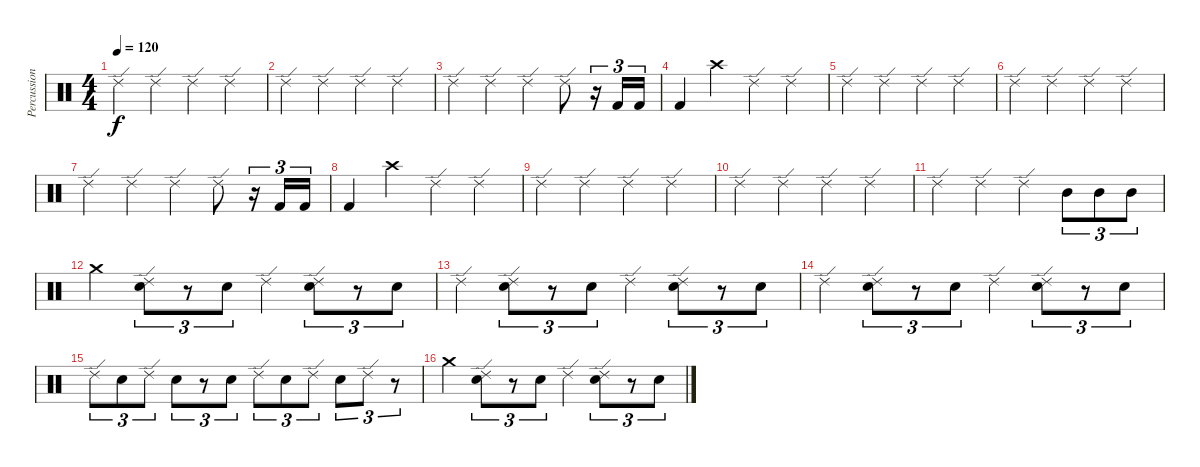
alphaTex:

\track ("Percussion" "Percussion") {instrument percussion}
\staff {score}
\articulation defaults
\ts (4 4)
\tempo 120
\clef neutral
\ks c "Ride (edge) 2".4{dy f} "Ride (edge) 2".4 "Ride (edge) 2".4 "Ride (edge) 2".4
|
"Ride (edge) 2".4 "Ride (edge) 2".4 "Ride (edge) 2".4 "Ride (edge) 2".4 |
"Ride (edge) 2".4 "Ride (edge) 2".4 "Ride (edge) 2".4 "Ride (edge) 2".8 r.16{tu (3 2)} "Kick (hit) 2".16{tu (3 2)} "Kick (hit) 2".16{tu (3 2)} |
"Kick (hit) 2".4 "Crash high (hit)".4 "Ride (edge) 2".4 "Ride (edge) 2".4 |
"Ride (edge) 2".4 "Ride (edge) 2".4 "Ride (edge) 2".4 "Ride (edge) 2".4 |
"Ride (edge) 2".4 "Ride (edge) 2".4 "Ride (edge) 2".4 "Ride (edge) 2".4 |
"Ride (edge) 2".4 "Ride (edge) 2".4 "Ride (edge) 2".4 "Ride (edge) 2".8 r.16{tu (3 2)} "Kick (hit) 2".16{tu (3 2)} "Kick (hit) 2".16{tu (3 2)} |
"Kick (hit) 2".4 "Crash high (hit)".4 "Ride (edge) 2".4 "Ride (edge) 2".4 |
"Ride (edge) 2".4 "Ride (edge) 2".4 "Ride (edge) 2".4 "Ride (edge) 2".4 |
"Ride (edge) 2".4 "Ride (edge) 2".4 "Ride (edge) 2".4 "Ride (edge) 2".4 |
"Ride (edge) 2".4 "Ride (edge) 2".4 "Ride (edge) 2".4 "Mid Tom (hit)".8{tu (3 2)} "Mid Tom (hit)".8{tu (3 2)} "Mid Tom (hit)".8{tu (3 2)} |
"Crash medium (hit)".4 ("Electric Snare (hit)" "Ride (edge) 2").8{tu (3 2)} r.8{tu (3 2)} "Electric Snare (hit)".8{tu (3 2)} "Ride (edge) 2".4 ("Electric Snare (hit)" "Ride (edge) 2").8{tu (3 2)} r.8{tu (3 2)} "Electric Snare (hit)".8{tu (3 2)} |
"Ride (edge) 2".4 ("Electric Snare (hit)" "Ride (edge) 2").8{tu (3 2)} r.8{tu (3 2)} "Electric Snare (hit)".8{tu (3 2)} "Ride (edge) 2".4 ("Electric Snare (hit)" "Ride (edge) 2").8{tu (3 2)} r.8{tu (3 2)} "Electric Snare (hit)".8{tu (3 2)} |
"Ride (edge) 2".4 ("Electric Snare (hit)" "Ride (edge) 2").8{tu (3 2)} r.8{tu (3 2)} "Electric Snare (hit)".8{tu (3 2)} "Ride (edge) 2".4 ("Electric Snare (hit)" "Ride (edge) 2").8{tu (3 2)} r.8{tu (3 2)} "Electric Snare (hit)".8{tu (3 2)} |
"Ride (edge) 2".8{tu (3 2)} "Electric Snare (hit)".8{tu (3 2)} "Ride (edge) 2".8{tu (3 2)} "Electric Snare (hit)".8{tu (3 2)} r.8{tu (3 2)} "Electric Snare (hit)".8{tu (3 2)} "Ride (edge) 2".8{tu (3 2)} "Electric Snare (hit)".8{tu (3 2)} "Ride (edge) 2".8{tu (3 2)} "Electric Snare (hit)".8{tu (3 2)} "Ride (edge) 2".8{tu (3 2)} r.8{tu (3 2)} |
"Crash medium (hit)".4 ("Electric Snare (hit)" "Ride (edge) 2").8{tu (3 2)} r.8{tu (3 2)} "Electric Snare (hit)".8{tu (3 2)} "Ride (edge) 2".4 ("Electric Snare (hit)" "Ride (edge) 2").8{tu (3 2)} r.8{tu (3 2)} "Electric Snare (hit)".8{tu (3 2)}
